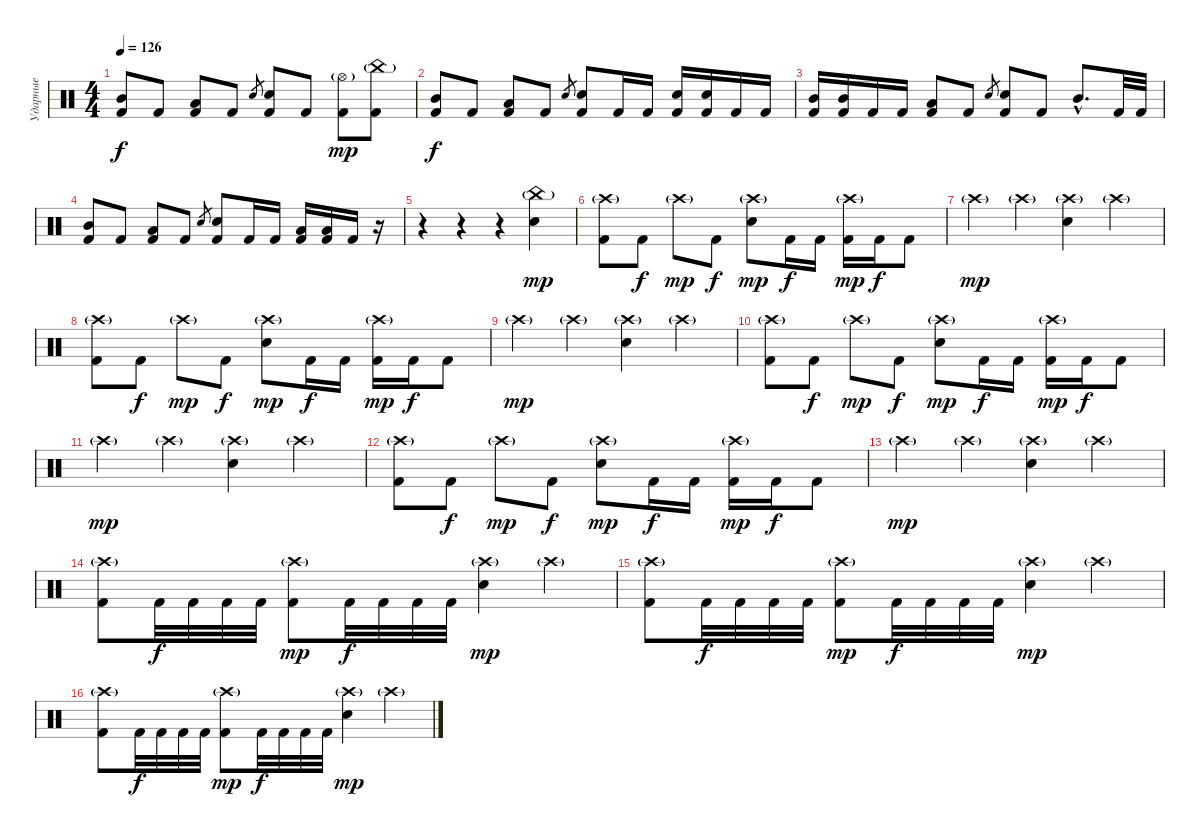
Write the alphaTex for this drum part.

\track ("Ударные" "Ударные") {instrument percussion}
\staff {score}
\articulation defaults
\ts (4 4)
\tempo 126
\clef neutral
\ks c
("Mid Tom (hit)" "Kick (hit) 2").8{dy f} "Kick (hit) 2".8 ("Low Tom (hit)" "Kick (hit) 2").8 "Kick (hit) 2".8 "Electric Snare (hit)".8{gr} ("Electric Snare (hit)" "Kick (hit) 2").8 "Kick (hit) 2".8 ("Hi-Hat (open)"{g} "Kick (hit) 2").8{dy mp} ("China (hit)"{g} "Kick (hit) 2").8 |
("Mid Tom (hit)" "Kick (hit) 2").8{dy f} "Kick (hit) 2".8 ("Low Tom (hit)" "Kick (hit) 2").8 "Kick (hit) 2".8 "Electric Snare (hit)".8{gr} ("Electric Snare (hit)" "Kick (hit) 2").8 "Kick (hit) 2".16 "Kick (hit) 2".16 ("Electric Snare (hit)" "Kick (hit) 2").16 ("Electric Snare (hit)" "Kick (hit) 2").16 "Kick (hit) 2".16 "Kick (hit) 2".16 |
("Mid Tom (hit)" "Kick (hit) 2").16 ("Mid Tom (hit)" "Kick (hit) 2").16 "Kick (hit) 2".16 "Kick (hit) 2".16 ("Low Tom (hit)" "Kick (hit) 2").8 "Kick (hit) 2".8 "Electric Snare (hit)".8{gr} ("Electric Snare (hit)" "Kick (hit) 2").8 "Kick (hit) 2".8 "Mid Tom (hit)"{hac}.8{d} "Kick (hit) 2".32 "Kick (hit) 2".32 |
("Mid Tom (hit)" "Kick (hit) 2").8 "Kick (hit) 2".8 ("Low Tom (hit)" "Kick (hit) 2").8 "Kick (hit) 2".8 "Electric Snare (hit)".8{gr} ("Electric Snare (hit)" "Kick (hit) 2").8 "Kick (hit) 2".16 "Kick (hit) 2".16 ("Low Tom (hit)" "Kick (hit) 2").16 ("Low Tom (hit)" "Kick (hit) 2").16 "Kick (hit) 2".16 r.16 |
r.4 r.4 r.4 ("China (hit)"{g} "Electric Snare (hit)").4{dy mp} |
("Crash high (hit)"{g} "Kick (hit) 2").8 "Kick (hit) 2".8{dy f} "Crash high (hit)"{g}.8{dy mp} "Kick (hit) 2".8{dy f} ("Crash high (hit)"{g} "Electric Snare (hit)").8{dy mp} "Kick (hit) 2".16{dy f} "Kick (hit) 2".16 ("Crash high (hit)"{g} "Kick (hit) 2").16{dy mp} "Kick (hit) 2".16{dy f} "Kick (hit) 2".8 |
"Crash high (hit)"{g}.4{dy mp} "Crash high (hit)"{g}.4 ("Crash high (hit)"{g} "Electric Snare (hit)").4 "Crash high (hit)"{g}.4 |
("Crash high (hit)"{g} "Kick (hit) 2").8 "Kick (hit) 2".8{dy f} "Crash high (hit)"{g}.8{dy mp} "Kick (hit) 2".8{dy f} ("Crash high (hit)"{g} "Electric Snare (hit)").8{dy mp} "Kick (hit) 2".16{dy f} "Kick (hit) 2".16 ("Crash high (hit)"{g} "Kick (hit) 2").16{dy mp} "Kick (hit) 2".16{dy f} "Kick (hit) 2".8 |
"Crash high (hit)"{g}.4{dy mp} "Crash high (hit)"{g}.4 ("Crash high (hit)"{g} "Electric Snare (hit)").4 "Crash high (hit)"{g}.4 |
("Crash high (hit)"{g} "Kick (hit) 2").8 "Kick (hit) 2".8{dy f} "Crash high (hit)"{g}.8{dy mp} "Kick (hit) 2".8{dy f} ("Crash high (hit)"{g} "Electric Snare (hit)").8{dy mp} "Kick (hit) 2".16{dy f} "Kick (hit) 2".16 ("Crash high (hit)"{g} "Kick (hit) 2").16{dy mp} "Kick (hit) 2".16{dy f} "Kick (hit) 2".8 |
"Crash high (hit)"{g}.4{dy mp} "Crash high (hit)"{g}.4 ("Crash high (hit)"{g} "Electric Snare (hit)").4 "Crash high (hit)"{g}.4 |
("Crash high (hit)"{g} "Kick (hit) 2").8 "Kick (hit) 2".8{dy f} "Crash high (hit)"{g}.8{dy mp} "Kick (hit) 2".8{dy f} ("Crash high (hit)"{g} "Electric Snare (hit)").8{dy mp} "Kick (hit) 2".16{dy f} "Kick (hit) 2".16 ("Crash high (hit)"{g} "Kick (hit) 2").16{dy mp} "Kick (hit) 2".16{dy f} "Kick (hit) 2".8 |
"Crash high (hit)"{g}.4{dy mp} "Crash high (hit)"{g}.4 ("Crash high (hit)"{g} "Electric Snare (hit)").4 "Crash high (hit)"{g}.4 |
("Crash high (hit)"{g} "Kick (hit) 2").8 "Kick (hit) 2".32{dy f} "Kick (hit) 2".32 "Kick (hit) 2".32 "Kick (hit) 2".32 ("Crash high (hit)"{g} "Kick (hit) 2").8{dy mp} "Kick (hit) 2".32{dy f} "Kick (hit) 2".32 "Kick (hit) 2".32 "Kick (hit) 2".32 ("Crash high (hit)"{g} "Electric Snare (hit)").4{dy mp} "Crash high (hit)"{g}.4 |
("Crash high (hit)"{g} "Kick (hit) 2").8 "Kick (hit) 2".32{dy f} "Kick (hit) 2".32 "Kick (hit) 2".32 "Kick (hit) 2".32 ("Crash high (hit)"{g} "Kick (hit) 2").8{dy mp} "Kick (hit) 2".32{dy f} "Kick (hit) 2".32 "Kick (hit) 2".32 "Kick (hit) 2".32 ("Crash high (hit)"{g} "Electric Snare (hit)").4{dy mp} "Crash high (hit)"{g}.4 |
("Crash high (hit)"{g} "Kick (hit) 2").8 "Kick (hit) 2".32{dy f} "Kick (hit) 2".32 "Kick (hit) 2".32 "Kick (hit) 2".32 ("Crash high (hit)"{g} "Kick (hit) 2").8{dy mp} "Kick (hit) 2".32{dy f} "Kick (hit) 2".32 "Kick (hit) 2".32 "Kick (hit) 2".32 ("Crash high (hit)"{g} "Electric Snare (hit)").4{dy mp} "Crash high (hit)"{g}.4
